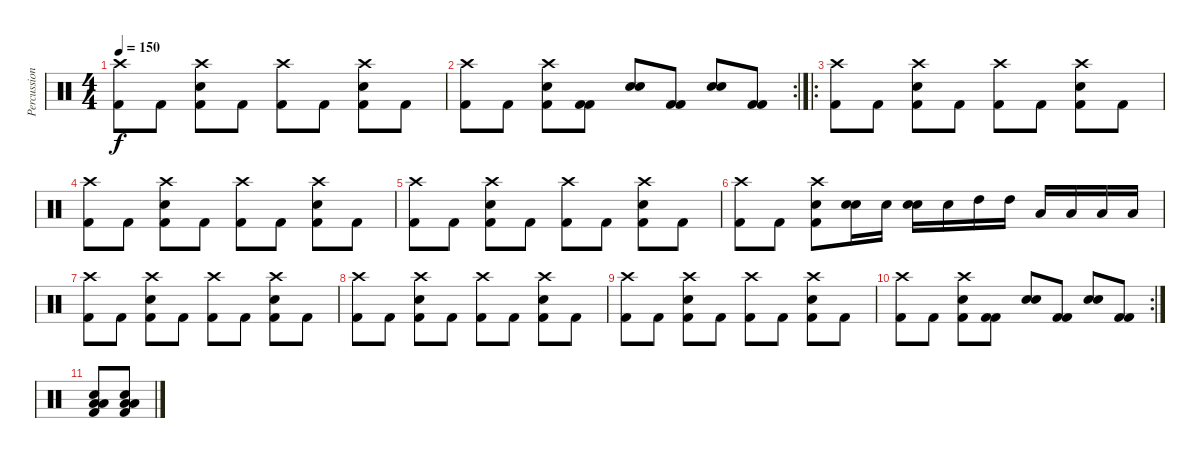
\track ("Percussion" "Percussion") {instrument percussion}
\staff {score}
\articulation defaults
\ts (4 4)
\tempo 150
\clef neutral
\ks c
("Crash high (hit)" "Kick (hit) 2").8{dy f} "Kick (hit) 2".8 ("Crash high (hit)" "Electric Snare (hit)" "Kick (hit) 2").8 "Kick (hit) 2".8 ("Crash high (hit)" "Kick (hit) 2").8 "Kick (hit) 2".8 ("Crash high (hit)" "Electric Snare (hit)" "Kick (hit) 2").8 "Kick (hit) 2".8 |
\rc 2
("Crash high (hit)" "Kick (hit) 2").8 "Kick (hit) 2".8 ("Crash high (hit)" "Electric Snare (hit)" "Kick (hit) 2").8 ("Kick (hit) 2" "Kick (hit) 2").8 ("Electric Snare (hit)" "Electric Snare (hit)").8 ("Kick (hit) 2" "Kick (hit) 2").8 ("Electric Snare (hit)" "Electric Snare (hit)").8 ("Kick (hit) 2" "Kick (hit) 2").8 |
\ro
("Crash high (hit)" "Kick (hit) 2").8 "Kick (hit) 2".8 ("Crash high (hit)" "Electric Snare (hit)" "Kick (hit) 2").8 "Kick (hit) 2".8 ("Crash high (hit)" "Kick (hit) 2").8 "Kick (hit) 2".8 ("Crash high (hit)" "Electric Snare (hit)" "Kick (hit) 2").8 "Kick (hit) 2".8 |
("Crash high (hit)" "Kick (hit) 2").8 "Kick (hit) 2".8 ("Crash high (hit)" "Electric Snare (hit)" "Kick (hit) 2").8 "Kick (hit) 2".8 ("Crash high (hit)" "Kick (hit) 2").8 "Kick (hit) 2".8 ("Crash high (hit)" "Electric Snare (hit)" "Kick (hit) 2").8 "Kick (hit) 2".8 |
("Crash high (hit)" "Kick (hit) 2").8 "Kick (hit) 2".8 ("Crash high (hit)" "Electric Snare (hit)" "Kick (hit) 2").8 "Kick (hit) 2".8 ("Crash high (hit)" "Kick (hit) 2").8 "Kick (hit) 2".8 ("Crash high (hit)" "Electric Snare (hit)" "Kick (hit) 2").8 "Kick (hit) 2".8 |
("Crash high (hit)" "Kick (hit) 2").8 "Kick (hit) 2".8 ("Crash high (hit)" "Electric Snare (hit)" "Kick (hit) 2").8 ("Snare (hit) 2" "Electric Snare (hit)").16 "Electric Snare (hit)".16 ("Snare (hit) 2" "Electric Snare (hit)").16 "Electric Snare (hit)".16 "High Tom (hit)".16 "High Tom (hit)".16 "Low Tom (hit)".16 "Low Tom (hit)".16 "Low Floor Tom (hit)".16 "Low Floor Tom (hit)".16 |
("Crash high (hit)" "Kick (hit) 2").8 "Kick (hit) 2".8 ("Crash high (hit)" "Electric Snare (hit)" "Kick (hit) 2").8 "Kick (hit) 2".8 ("Crash high (hit)" "Kick (hit) 2").8 "Kick (hit) 2".8 ("Crash high (hit)" "Electric Snare (hit)" "Kick (hit) 2").8 "Kick (hit) 2".8 |
("Crash high (hit)" "Kick (hit) 2").8 "Kick (hit) 2".8 ("Crash high (hit)" "Electric Snare (hit)" "Kick (hit) 2").8 "Kick (hit) 2".8 ("Crash high (hit)" "Kick (hit) 2").8 "Kick (hit) 2".8 ("Crash high (hit)" "Electric Snare (hit)" "Kick (hit) 2").8 "Kick (hit) 2".8 |
("Crash high (hit)" "Kick (hit) 2").8 "Kick (hit) 2".8 ("Crash high (hit)" "Electric Snare (hit)" "Kick (hit) 2").8 "Kick (hit) 2".8 ("Crash high (hit)" "Kick (hit) 2").8 "Kick (hit) 2".8 ("Crash high (hit)" "Electric Snare (hit)" "Kick (hit) 2").8 "Kick (hit) 2".8 |
\rc 2
("Crash high (hit)" "Kick (hit) 2").8 "Kick (hit) 2".8 ("Crash high (hit)" "Electric Snare (hit)" "Kick (hit) 2").8 ("Kick (hit) 2" "Kick (hit) 2").8 ("Electric Snare (hit)" "Electric Snare (hit)").8 ("Kick (hit) 2" "Kick (hit) 2").8 ("Electric Snare (hit)" "Electric Snare (hit)").8 ("Kick (hit) 2" "Kick (hit) 2").8 |
("Low Floor Tom (hit)" "Electric Snare (hit)" "Low Floor Tom (hit)" "Kick (hit) 2").8 ("Low Floor Tom (hit)" "Electric Snare (hit)" "Low Floor Tom (hit)" "Kick (hit) 2").8
